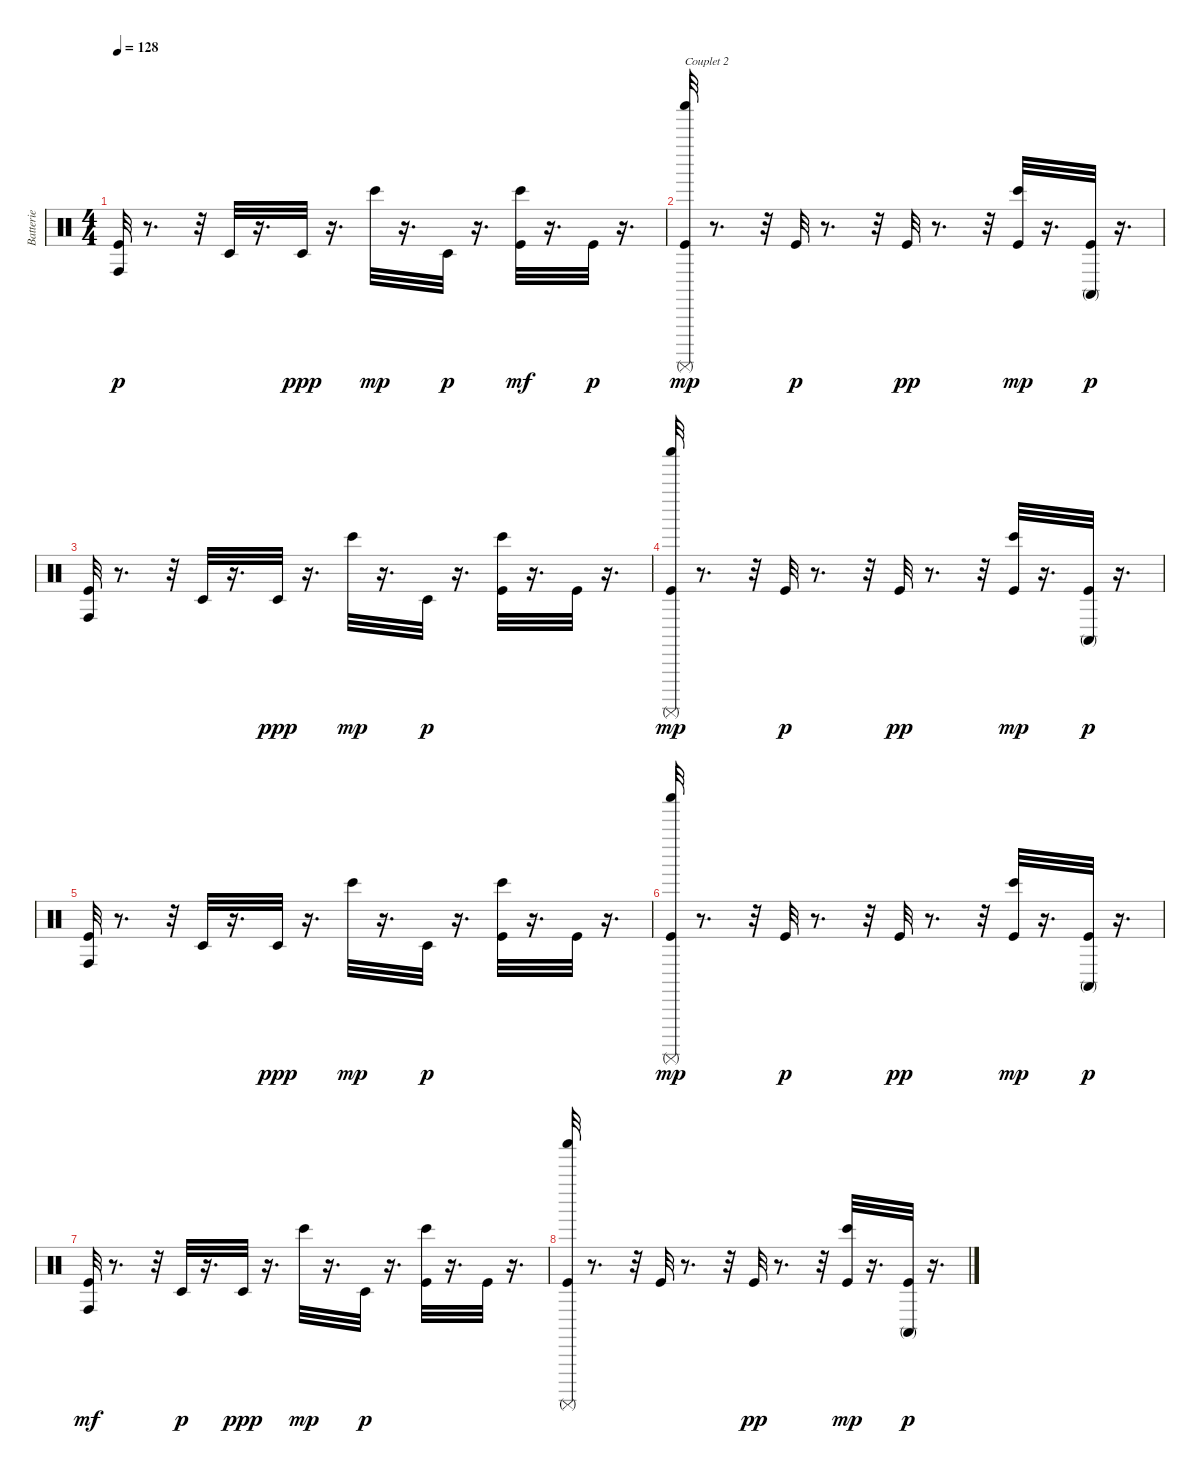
\track ("Batterie" "Batterie") {instrument percussion}
\staff {score}
\articulation defaults
\ts (4 4)
\tempo 128
\clef neutral
\ks c
("Conga high (hit)" "Kick (hit)").32{dy p} r.8{d} r.32 "Timbale low (hit)".32 r.16{d} "Timbale low (hit)".32{dy ppp} r.16{d} "Bongo High (hit)".32{dy mp} r.16{d} "Timbale low (hit)".32{dy p} r.16{d} ("Kick (hit)" "Bongo High (hit)").32{dy mf} r.16{d} "Kick (hit)".32{dy p} r.16{d} |
("Kick (hit)" "Shaker (hit)" "Surdo (mute)").32{txt "Couplet 2" dy mp} r.8{d} r.32 "Kick (hit)".32{dy p} r.8{d} r.32 "Kick (hit)".32{dy pp} r.8{d} r.32 ("Kick (hit)" "Bongo High (hit)").32{dy mp} r.16{d} ("Conga high (mute)" "Kick (hit)").32{dy p} r.16{d} |
("Conga high (hit)" "Kick (hit)").32 r.8{d} r.32 "Timbale low (hit)".32 r.16{d} "Timbale low (hit)".32{dy ppp} r.16{d} "Bongo High (hit)".32{dy mp} r.16{d} "Timbale low (hit)".32{dy p} r.16{d} ("Bongo High (hit)" "Kick (hit)").32 r.16{d} "Kick (hit)".32 r.16{d} |
("Surdo (mute)" "Kick (hit)" "Shaker (hit)").32{dy mp} r.8{d} r.32 "Kick (hit)".32{dy p} r.8{d} r.32 "Kick (hit)".32{dy pp} r.8{d} r.32 ("Kick (hit)" "Bongo High (hit)").32{dy mp} r.16{d} ("Conga high (mute)" "Kick (hit)").32{dy p} r.16{d} |
("Conga high (hit)" "Kick (hit)").32 r.8{d} r.32 "Timbale low (hit)".32 r.16{d} "Timbale low (hit)".32{dy ppp} r.16{d} "Bongo High (hit)".32{dy mp} r.16{d} "Timbale low (hit)".32{dy p} r.16{d} ("Bongo High (hit)" "Kick (hit)").32 r.16{d} "Kick (hit)".32 r.16{d} |
("Kick (hit)" "Surdo (mute)" "Shaker (hit)").32{dy mp} r.8{d} r.32 "Kick (hit)".32{dy p} r.8{d} r.32 "Kick (hit)".32{dy pp} r.8{d} r.32 ("Kick (hit)" "Bongo High (hit)").32{dy mp} r.16{d} ("Conga high (mute)" "Kick (hit)").32{dy p} r.16{d} |
("Kick (hit)" "Conga high (hit)").32{dy mf} r.8{d} r.32 "Timbale low (hit)".32{dy p} r.16{d} "Timbale low (hit)".32{dy ppp} r.16{d} "Bongo High (hit)".32{dy mp} r.16{d} "Timbale low (hit)".32{dy p} r.16{d} ("Bongo High (hit)" "Kick (hit)").32 r.16{d} "Kick (hit)".32 r.16{d} |
("Surdo (mute)" "Shaker (hit)" "Kick (hit)").32 r.8{d} r.32 "Kick (hit)".32 r.8{d} r.32 "Kick (hit)".32{dy pp} r.8{d} r.32 ("Kick (hit)" "Bongo High (hit)").32{dy mp} r.16{d} ("Conga high (mute)" "Kick (hit)").32{dy p} r.16{d}
